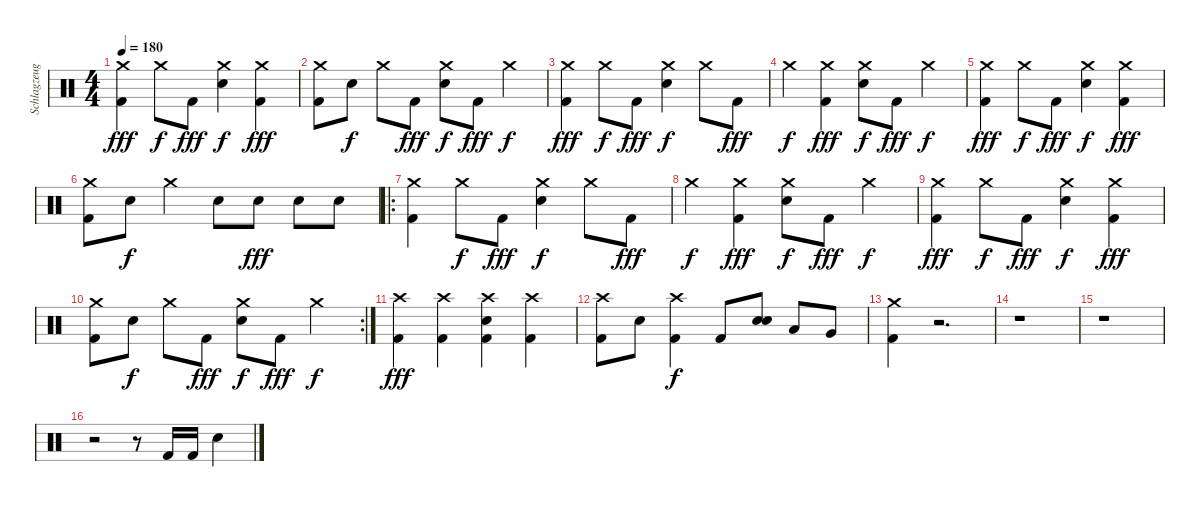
\track ("Schlagzeug" "Schlagzeug") {instrument percussion}
\staff {score}
\articulation defaults
\ts (4 4)
\tempo 180
\clef neutral
\ks c
("Crash medium (hit)" "Kick (hit) 2").4{dy fff} "Crash medium (hit)".8{dy f} "Kick (hit) 2".8{dy fff} ("Crash medium (hit)" "Electric Snare (hit)").4{dy f} ("Crash medium (hit)" "Kick (hit) 2").4{dy fff} |
("Crash medium (hit)" "Kick (hit) 2").8 "Electric Snare (hit)".8{dy f} "Crash medium (hit)".8 "Kick (hit) 2".8{dy fff} ("Crash medium (hit)" "Electric Snare (hit)").8{dy f} "Kick (hit) 2".8{dy fff} "Crash medium (hit)".4{dy f} |
("Crash medium (hit)" "Kick (hit) 2").4{dy fff} "Crash medium (hit)".8{dy f} "Kick (hit) 2".8{dy fff} ("Crash medium (hit)" "Electric Snare (hit)").4{dy f} "Crash medium (hit)".8 "Kick (hit) 2".8{dy fff} |
"Crash medium (hit)".4{dy f} ("Crash medium (hit)" "Kick (hit) 2").4{dy fff} ("Crash medium (hit)" "Electric Snare (hit)").8{dy f} "Kick (hit) 2".8{dy fff} "Crash medium (hit)".4{dy f} |
("Crash medium (hit)" "Kick (hit) 2").4{dy fff} "Crash medium (hit)".8{dy f} "Kick (hit) 2".8{dy fff} ("Crash medium (hit)" "Electric Snare (hit)").4{dy f} ("Crash medium (hit)" "Kick (hit) 2").4{dy fff} |
("Crash medium (hit)" "Kick (hit) 2").8 "Electric Snare (hit)".8{dy f} "Crash medium (hit)".4 "Electric Snare (hit)".8 "Electric Snare (hit)".8{dy fff} "Electric Snare (hit)".8 "Electric Snare (hit)".8 |
\ro
("Crash medium (hit)" "Kick (hit) 2").4 "Crash medium (hit)".8{dy f} "Kick (hit) 2".8{dy fff} ("Crash medium (hit)" "Electric Snare (hit)").4{dy f} "Crash medium (hit)".8 "Kick (hit) 2".8{dy fff} |
"Crash medium (hit)".4{dy f} ("Crash medium (hit)" "Kick (hit) 2").4{dy fff} ("Crash medium (hit)" "Electric Snare (hit)").8{dy f} "Kick (hit) 2".8{dy fff} "Crash medium (hit)".4{dy f} |
("Crash medium (hit)" "Kick (hit) 2").4{dy fff} "Crash medium (hit)".8{dy f} "Kick (hit) 2".8{dy fff} ("Crash medium (hit)" "Electric Snare (hit)").4{dy f} ("Crash medium (hit)" "Kick (hit) 2").4{dy fff} |
\rc 2
("Crash medium (hit)" "Kick (hit) 2").8 "Electric Snare (hit)".8{dy f} "Crash medium (hit)".8 "Kick (hit) 2".8{dy fff} ("Crash medium (hit)" "Electric Snare (hit)").8{dy f} "Kick (hit) 2".8{dy fff} "Crash medium (hit)".4{dy f} |
("Crash high (hit)" "Kick (hit) 2").4{dy fff} ("Crash high (hit)" "Kick (hit) 2").4 ("Crash high (hit)" "Kick (hit) 2" "Electric Snare (hit)").4 ("Crash high (hit)" "Kick (hit) 2").4 |
("Crash high (hit)" "Kick (hit) 2").8 "Electric Snare (hit)".8 ("Crash high (hit)" "Kick (hit) 2").4{dy f} "Kick (hit) 2".8 ("Electric Snare (hit)" "Electric Snare (hit)").8 "Low Tom (hit)".8 "Very Low Tom (hit)".8 |
("Crash medium (hit)" "Kick (hit) 2").4 r.2{d} |
r.1 |
r.1 |
r.2 r.8 "Kick (hit) 2".16 "Kick (hit) 2".16 "Electric Snare (hit)".4
